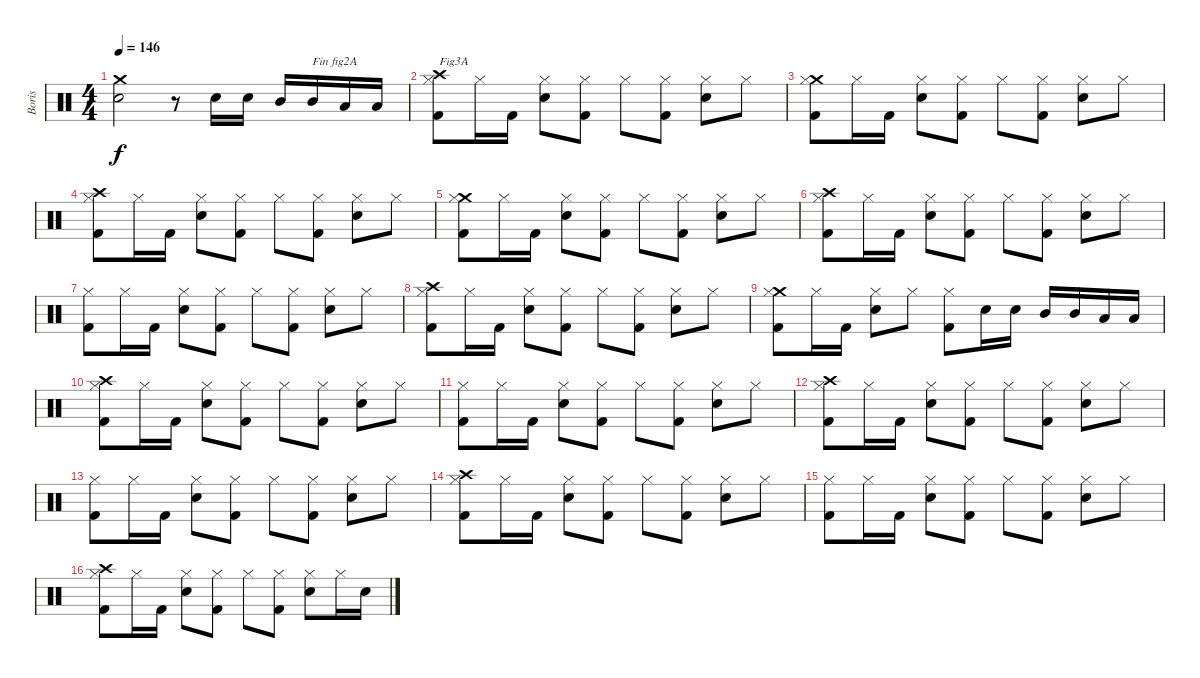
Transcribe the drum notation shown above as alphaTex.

\track ("Boris" "Boris") {instrument percussion}
\staff {score}
\articulation defaults
\ts (4 4)
\tempo 146
\clef neutral
\ks c
("Electric Snare (hit)" "Crash medium (hit)").2{dy f} r.8 "Electric Snare (hit)".16 "Electric Snare (hit)".16 "Mid Tom (hit)".16 "Mid Tom (hit)".16{txt "Fin fig2A"} "Low Tom (hit)".16 "Low Tom (hit)".16 |
("Kick (hit) 2" "Crash high (hit)" "Hi-Hat (closed)").8{txt "Fig3A"} "Hi-Hat (closed)".16 "Kick (hit) 2".16 ("Electric Snare (hit)" "Hi-Hat (closed)").8 ("Kick (hit) 2" "Hi-Hat (closed)").8 "Hi-Hat (closed)".8 ("Kick (hit) 2" "Hi-Hat (closed)").8 ("Electric Snare (hit)" "Hi-Hat (closed)").8 "Hi-Hat (closed)".8 |
("Kick (hit) 2" "Crash medium (hit)" "Hi-Hat (closed)").8 "Hi-Hat (closed)".16 "Kick (hit) 2".16 ("Electric Snare (hit)" "Hi-Hat (closed)").8 ("Kick (hit) 2" "Hi-Hat (closed)").8 "Hi-Hat (closed)".8 ("Kick (hit) 2" "Hi-Hat (closed)").8 ("Electric Snare (hit)" "Hi-Hat (closed)").8 "Hi-Hat (closed)".8 |
("Kick (hit) 2" "Crash high (hit)" "Hi-Hat (closed)").8 "Hi-Hat (closed)".16 "Kick (hit) 2".16 ("Electric Snare (hit)" "Hi-Hat (closed)").8 ("Kick (hit) 2" "Hi-Hat (closed)").8 "Hi-Hat (closed)".8 ("Kick (hit) 2" "Hi-Hat (closed)").8 ("Electric Snare (hit)" "Hi-Hat (closed)").8 "Hi-Hat (closed)".8 |
("Kick (hit) 2" "Crash medium (hit)" "Hi-Hat (closed)").8 "Hi-Hat (closed)".16 "Kick (hit) 2".16 ("Electric Snare (hit)" "Hi-Hat (closed)").8 ("Kick (hit) 2" "Hi-Hat (closed)").8 "Hi-Hat (closed)".8 ("Kick (hit) 2" "Hi-Hat (closed)").8 ("Electric Snare (hit)" "Hi-Hat (closed)").8 "Hi-Hat (closed)".8 |
("Kick (hit) 2" "Crash high (hit)" "Hi-Hat (closed)").8 "Hi-Hat (closed)".16 "Kick (hit) 2".16 ("Electric Snare (hit)" "Hi-Hat (closed)").8 ("Kick (hit) 2" "Hi-Hat (closed)").8 "Hi-Hat (closed)".8 ("Kick (hit) 2" "Hi-Hat (closed)").8 ("Electric Snare (hit)" "Hi-Hat (closed)").8 "Hi-Hat (closed)".8 |
("Kick (hit) 2" "Hi-Hat (closed)").8 "Hi-Hat (closed)".16 "Kick (hit) 2".16 ("Electric Snare (hit)" "Hi-Hat (closed)").8 ("Kick (hit) 2" "Hi-Hat (closed)").8 "Hi-Hat (closed)".8 ("Kick (hit) 2" "Hi-Hat (closed)").8 ("Electric Snare (hit)" "Hi-Hat (closed)").8 "Hi-Hat (closed)".8 |
("Kick (hit) 2" "Crash high (hit)" "Hi-Hat (closed)").8 "Hi-Hat (closed)".16 "Kick (hit) 2".16 ("Electric Snare (hit)" "Hi-Hat (closed)").8 ("Kick (hit) 2" "Hi-Hat (closed)").8 "Hi-Hat (closed)".8 ("Kick (hit) 2" "Hi-Hat (closed)").8 ("Electric Snare (hit)" "Hi-Hat (closed)").8 "Hi-Hat (closed)".8 |
("Kick (hit) 2" "Crash medium (hit)" "Hi-Hat (closed)").8 "Hi-Hat (closed)".16 "Kick (hit) 2".16 ("Electric Snare (hit)" "Hi-Hat (closed)").8 "Hi-Hat (closed)".8 ("Kick (hit) 2" "Hi-Hat (closed)").8 "Electric Snare (hit)".16 "Electric Snare (hit)".16 "Mid Tom (hit)".16 "Mid Tom (hit)".16 "Low Tom (hit)".16 "Low Tom (hit)".16 |
("Kick (hit) 2" "Crash high (hit)" "Hi-Hat (closed)").8 "Hi-Hat (closed)".16 "Kick (hit) 2".16 ("Electric Snare (hit)" "Hi-Hat (closed)").8 ("Kick (hit) 2" "Hi-Hat (closed)").8 "Hi-Hat (closed)".8 ("Kick (hit) 2" "Hi-Hat (closed)").8 ("Electric Snare (hit)" "Hi-Hat (closed)").8 "Hi-Hat (closed)".8 |
("Kick (hit) 2" "Hi-Hat (closed)").8 "Hi-Hat (closed)".16 "Kick (hit) 2".16 ("Electric Snare (hit)" "Hi-Hat (closed)").8 ("Kick (hit) 2" "Hi-Hat (closed)").8 "Hi-Hat (closed)".8 ("Kick (hit) 2" "Hi-Hat (closed)").8 ("Electric Snare (hit)" "Hi-Hat (closed)").8 "Hi-Hat (closed)".8 |
("Kick (hit) 2" "Crash high (hit)" "Hi-Hat (closed)").8 "Hi-Hat (closed)".16 "Kick (hit) 2".16 ("Electric Snare (hit)" "Hi-Hat (closed)").8 ("Kick (hit) 2" "Hi-Hat (closed)").8 "Hi-Hat (closed)".8 ("Kick (hit) 2" "Hi-Hat (closed)").8 ("Electric Snare (hit)" "Hi-Hat (closed)").8 "Hi-Hat (closed)".8 |
("Kick (hit) 2" "Hi-Hat (closed)").8 "Hi-Hat (closed)".16 "Kick (hit) 2".16 ("Electric Snare (hit)" "Hi-Hat (closed)").8 ("Kick (hit) 2" "Hi-Hat (closed)").8 "Hi-Hat (closed)".8 ("Kick (hit) 2" "Hi-Hat (closed)").8 ("Electric Snare (hit)" "Hi-Hat (closed)").8 "Hi-Hat (closed)".8 |
("Kick (hit) 2" "Crash high (hit)" "Hi-Hat (closed)").8 "Hi-Hat (closed)".16 "Kick (hit) 2".16 ("Electric Snare (hit)" "Hi-Hat (closed)").8 ("Kick (hit) 2" "Hi-Hat (closed)").8 "Hi-Hat (closed)".8 ("Kick (hit) 2" "Hi-Hat (closed)").8 ("Electric Snare (hit)" "Hi-Hat (closed)").8 "Hi-Hat (closed)".8 |
("Kick (hit) 2" "Hi-Hat (closed)").8 "Hi-Hat (closed)".16 "Kick (hit) 2".16 ("Electric Snare (hit)" "Hi-Hat (closed)").8 ("Kick (hit) 2" "Hi-Hat (closed)").8 "Hi-Hat (closed)".8 ("Kick (hit) 2" "Hi-Hat (closed)").8 ("Electric Snare (hit)" "Hi-Hat (closed)").8 "Hi-Hat (closed)".8 |
("Kick (hit) 2" "Crash high (hit)" "Hi-Hat (closed)").8 "Hi-Hat (closed)".16 "Kick (hit) 2".16 ("Electric Snare (hit)" "Hi-Hat (closed)").8 ("Kick (hit) 2" "Hi-Hat (closed)").8 "Hi-Hat (closed)".8 ("Kick (hit) 2" "Hi-Hat (closed)").8 ("Electric Snare (hit)" "Hi-Hat (closed)").8 "Hi-Hat (closed)".16 "Electric Snare (hit)".16
